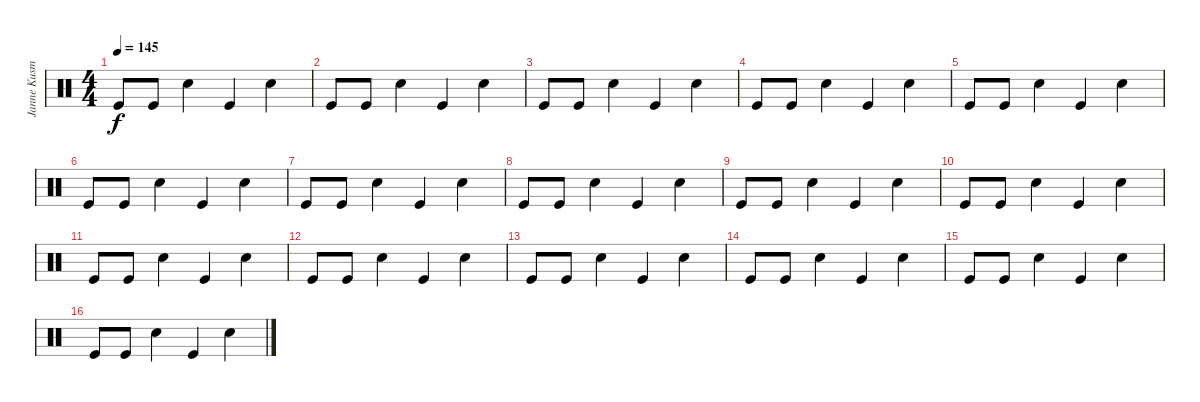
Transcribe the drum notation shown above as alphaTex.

\track ("Janne Kusmin " "Janne Kusm") {instrument percussion}
\staff {score}
\articulation defaults
\ts (4 4)
\tempo 145
\clef neutral
\ks c "Kick (hit)".8{dy f} "Kick (hit)".8 "Snare (hit) 2".4 "Kick (hit)".4 "Snare (hit) 2".4
|
"Kick (hit)".8 "Kick (hit)".8 "Snare (hit) 2".4 "Kick (hit)".4 "Snare (hit) 2".4 |
"Kick (hit)".8 "Kick (hit)".8 "Snare (hit) 2".4 "Kick (hit)".4 "Snare (hit) 2".4 |
"Kick (hit)".8 "Kick (hit)".8 "Snare (hit) 2".4 "Kick (hit)".4 "Snare (hit) 2".4 |
"Kick (hit)".8 "Kick (hit)".8 "Snare (hit) 2".4 "Kick (hit)".4 "Snare (hit) 2".4 |
"Kick (hit)".8 "Kick (hit)".8 "Snare (hit) 2".4 "Kick (hit)".4 "Snare (hit) 2".4 |
"Kick (hit)".8 "Kick (hit)".8 "Snare (hit) 2".4 "Kick (hit)".4 "Snare (hit) 2".4 |
"Kick (hit)".8 "Kick (hit)".8 "Snare (hit) 2".4 "Kick (hit)".4 "Snare (hit) 2".4 |
"Kick (hit)".8 "Kick (hit)".8 "Snare (hit) 2".4 "Kick (hit)".4 "Snare (hit) 2".4 |
"Kick (hit)".8 "Kick (hit)".8 "Snare (hit) 2".4 "Kick (hit)".4 "Snare (hit) 2".4 |
"Kick (hit)".8 "Kick (hit)".8 "Snare (hit) 2".4 "Kick (hit)".4 "Snare (hit) 2".4 |
"Kick (hit)".8 "Kick (hit)".8 "Snare (hit) 2".4 "Kick (hit)".4 "Snare (hit) 2".4 |
"Kick (hit)".8 "Kick (hit)".8 "Snare (hit) 2".4 "Kick (hit)".4 "Snare (hit) 2".4 |
"Kick (hit)".8 "Kick (hit)".8 "Snare (hit) 2".4 "Kick (hit)".4 "Snare (hit) 2".4 |
"Kick (hit)".8 "Kick (hit)".8 "Snare (hit) 2".4 "Kick (hit)".4 "Snare (hit) 2".4 |
"Kick (hit)".8 "Kick (hit)".8 "Snare (hit) 2".4 "Kick (hit)".4 "Snare (hit) 2".4
